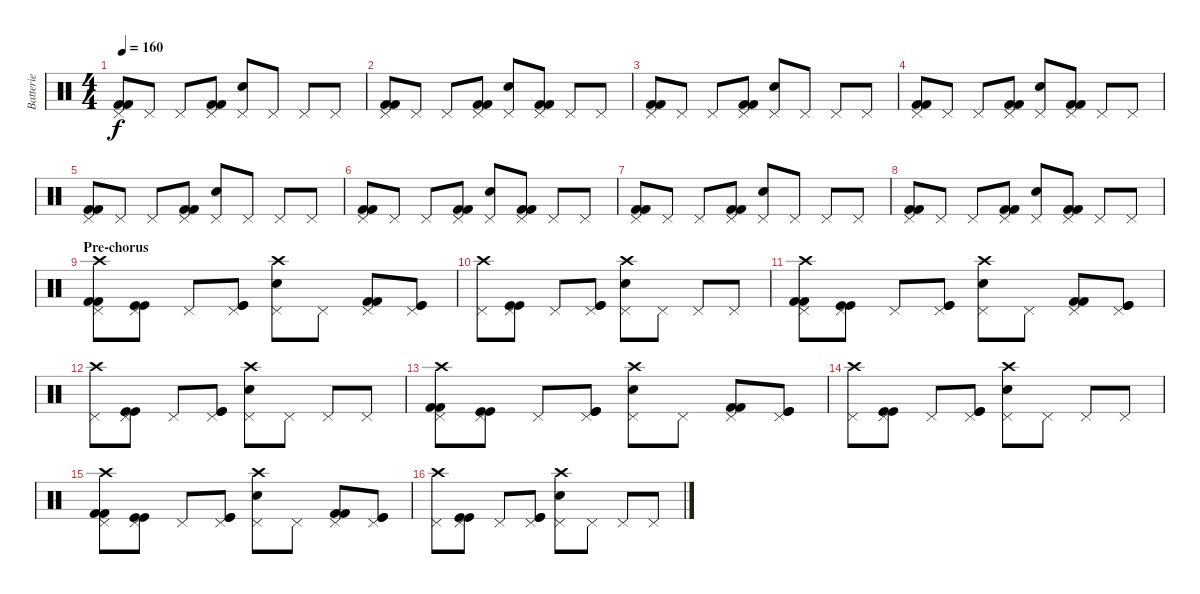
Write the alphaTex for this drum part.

\track ("Batterie" "Batterie") {instrument percussion}
\staff {score}
\articulation defaults
\ts (4 4)
\tempo 160
\clef neutral
\ks c
("Pedal Hi-Hat (hit)" "Kick (hit) 2" "Kick (hit) 2").8{dy f} "Pedal Hi-Hat (hit)".8 "Pedal Hi-Hat (hit)".8 ("Pedal Hi-Hat (hit)" "Kick (hit) 2" "Kick (hit) 2").8 ("Pedal Hi-Hat (hit)" "Electric Snare (hit)").8 "Pedal Hi-Hat (hit)".8 "Pedal Hi-Hat (hit)".8 "Pedal Hi-Hat (hit)".8 |
("Pedal Hi-Hat (hit)" "Kick (hit) 2" "Kick (hit) 2").8 "Pedal Hi-Hat (hit)".8 "Pedal Hi-Hat (hit)".8 ("Pedal Hi-Hat (hit)" "Kick (hit) 2" "Kick (hit) 2").8 ("Pedal Hi-Hat (hit)" "Electric Snare (hit)").8 ("Pedal Hi-Hat (hit)" "Kick (hit) 2" "Kick (hit) 2").8 "Pedal Hi-Hat (hit)".8 "Pedal Hi-Hat (hit)".8 |
("Pedal Hi-Hat (hit)" "Kick (hit) 2" "Kick (hit) 2").8 "Pedal Hi-Hat (hit)".8 "Pedal Hi-Hat (hit)".8 ("Pedal Hi-Hat (hit)" "Kick (hit) 2" "Kick (hit) 2").8 ("Pedal Hi-Hat (hit)" "Electric Snare (hit)").8 "Pedal Hi-Hat (hit)".8 "Pedal Hi-Hat (hit)".8 "Pedal Hi-Hat (hit)".8 |
("Pedal Hi-Hat (hit)" "Kick (hit) 2" "Kick (hit) 2").8 "Pedal Hi-Hat (hit)".8 "Pedal Hi-Hat (hit)".8 ("Pedal Hi-Hat (hit)" "Kick (hit) 2" "Kick (hit) 2").8 ("Pedal Hi-Hat (hit)" "Electric Snare (hit)").8 ("Pedal Hi-Hat (hit)" "Kick (hit) 2" "Kick (hit) 2").8 "Pedal Hi-Hat (hit)".8 "Pedal Hi-Hat (hit)".8 |
("Pedal Hi-Hat (hit)" "Kick (hit) 2" "Kick (hit) 2").8 "Pedal Hi-Hat (hit)".8 "Pedal Hi-Hat (hit)".8 ("Pedal Hi-Hat (hit)" "Kick (hit) 2" "Kick (hit) 2").8 ("Pedal Hi-Hat (hit)" "Electric Snare (hit)").8 "Pedal Hi-Hat (hit)".8 "Pedal Hi-Hat (hit)".8 "Pedal Hi-Hat (hit)".8 |
("Pedal Hi-Hat (hit)" "Kick (hit) 2" "Kick (hit) 2").8 "Pedal Hi-Hat (hit)".8 "Pedal Hi-Hat (hit)".8 ("Pedal Hi-Hat (hit)" "Kick (hit) 2" "Kick (hit) 2").8 ("Pedal Hi-Hat (hit)" "Electric Snare (hit)").8 ("Pedal Hi-Hat (hit)" "Kick (hit) 2" "Kick (hit) 2").8 "Pedal Hi-Hat (hit)".8 "Pedal Hi-Hat (hit)".8 |
("Pedal Hi-Hat (hit)" "Kick (hit) 2" "Kick (hit) 2").8 "Pedal Hi-Hat (hit)".8 "Pedal Hi-Hat (hit)".8 ("Pedal Hi-Hat (hit)" "Kick (hit) 2" "Kick (hit) 2").8 ("Pedal Hi-Hat (hit)" "Electric Snare (hit)").8 "Pedal Hi-Hat (hit)".8 "Pedal Hi-Hat (hit)".8 "Pedal Hi-Hat (hit)".8 |
("Pedal Hi-Hat (hit)" "Kick (hit) 2" "Kick (hit) 2").8 "Pedal Hi-Hat (hit)".8 "Pedal Hi-Hat (hit)".8 ("Pedal Hi-Hat (hit)" "Kick (hit) 2" "Kick (hit) 2").8 ("Pedal Hi-Hat (hit)" "Electric Snare (hit)").8 ("Pedal Hi-Hat (hit)" "Kick (hit) 2" "Kick (hit) 2").8 "Pedal Hi-Hat (hit)".8 "Pedal Hi-Hat (hit)".8 |
\section ("" "Pre-chorus")
("Crash high (hit)" "Pedal Hi-Hat (hit)" "Kick (hit) 2" "Kick (hit) 2").8 ("Pedal Hi-Hat (hit)" "Kick (hit)" "Kick (hit)").8 "Pedal Hi-Hat (hit)".8 ("Pedal Hi-Hat (hit)" "Kick (hit)" "Kick (hit)").8 ("Crash high (hit)" "Pedal Hi-Hat (hit)" "Electric Snare (hit)").8 "Pedal Hi-Hat (hit)".8 ("Pedal Hi-Hat (hit)" "Kick (hit) 2" "Kick (hit) 2").8 ("Pedal Hi-Hat (hit)" "Kick (hit)" "Kick (hit)").8 |
("Crash high (hit)" "Pedal Hi-Hat (hit)").8 ("Pedal Hi-Hat (hit)" "Kick (hit)" "Kick (hit)").8 "Pedal Hi-Hat (hit)".8 ("Pedal Hi-Hat (hit)" "Kick (hit)" "Kick (hit)").8 ("Crash high (hit)" "Pedal Hi-Hat (hit)" "Electric Snare (hit)").8 "Pedal Hi-Hat (hit)".8 "Pedal Hi-Hat (hit)".8 "Pedal Hi-Hat (hit)".8 |
("Crash high (hit)" "Pedal Hi-Hat (hit)" "Kick (hit) 2" "Kick (hit) 2").8 ("Pedal Hi-Hat (hit)" "Kick (hit)" "Kick (hit)").8 "Pedal Hi-Hat (hit)".8 ("Pedal Hi-Hat (hit)" "Kick (hit)" "Kick (hit)").8 ("Crash high (hit)" "Pedal Hi-Hat (hit)" "Electric Snare (hit)").8 "Pedal Hi-Hat (hit)".8 ("Pedal Hi-Hat (hit)" "Kick (hit) 2" "Kick (hit) 2").8 ("Pedal Hi-Hat (hit)" "Kick (hit)" "Kick (hit)").8 |
("Crash high (hit)" "Pedal Hi-Hat (hit)").8 ("Pedal Hi-Hat (hit)" "Kick (hit)" "Kick (hit)").8 "Pedal Hi-Hat (hit)".8 ("Pedal Hi-Hat (hit)" "Kick (hit)" "Kick (hit)").8 ("Crash high (hit)" "Pedal Hi-Hat (hit)" "Electric Snare (hit)").8 "Pedal Hi-Hat (hit)".8 "Pedal Hi-Hat (hit)".8 "Pedal Hi-Hat (hit)".8 |
("Crash high (hit)" "Pedal Hi-Hat (hit)" "Kick (hit) 2" "Kick (hit) 2").8 ("Pedal Hi-Hat (hit)" "Kick (hit)" "Kick (hit)").8 "Pedal Hi-Hat (hit)".8 ("Pedal Hi-Hat (hit)" "Kick (hit)" "Kick (hit)").8 ("Crash high (hit)" "Pedal Hi-Hat (hit)" "Electric Snare (hit)").8 "Pedal Hi-Hat (hit)".8 ("Pedal Hi-Hat (hit)" "Kick (hit) 2" "Kick (hit) 2").8 ("Pedal Hi-Hat (hit)" "Kick (hit)" "Kick (hit)").8 |
("Crash high (hit)" "Pedal Hi-Hat (hit)").8 ("Pedal Hi-Hat (hit)" "Kick (hit)" "Kick (hit)").8 "Pedal Hi-Hat (hit)".8 ("Pedal Hi-Hat (hit)" "Kick (hit)" "Kick (hit)").8 ("Crash high (hit)" "Pedal Hi-Hat (hit)" "Electric Snare (hit)").8 "Pedal Hi-Hat (hit)".8 "Pedal Hi-Hat (hit)".8 "Pedal Hi-Hat (hit)".8 |
("Crash high (hit)" "Pedal Hi-Hat (hit)" "Kick (hit) 2" "Kick (hit) 2").8 ("Pedal Hi-Hat (hit)" "Kick (hit)" "Kick (hit)").8 "Pedal Hi-Hat (hit)".8 ("Pedal Hi-Hat (hit)" "Kick (hit)" "Kick (hit)").8 ("Crash high (hit)" "Pedal Hi-Hat (hit)" "Electric Snare (hit)").8 "Pedal Hi-Hat (hit)".8 ("Pedal Hi-Hat (hit)" "Kick (hit) 2" "Kick (hit) 2").8 ("Pedal Hi-Hat (hit)" "Kick (hit)" "Kick (hit)").8 |
("Crash high (hit)" "Pedal Hi-Hat (hit)").8 ("Pedal Hi-Hat (hit)" "Kick (hit)" "Kick (hit)").8 "Pedal Hi-Hat (hit)".8 ("Pedal Hi-Hat (hit)" "Kick (hit)" "Kick (hit)").8 ("Crash high (hit)" "Pedal Hi-Hat (hit)" "Electric Snare (hit)").8 "Pedal Hi-Hat (hit)".8 "Pedal Hi-Hat (hit)".8 "Pedal Hi-Hat (hit)".8
